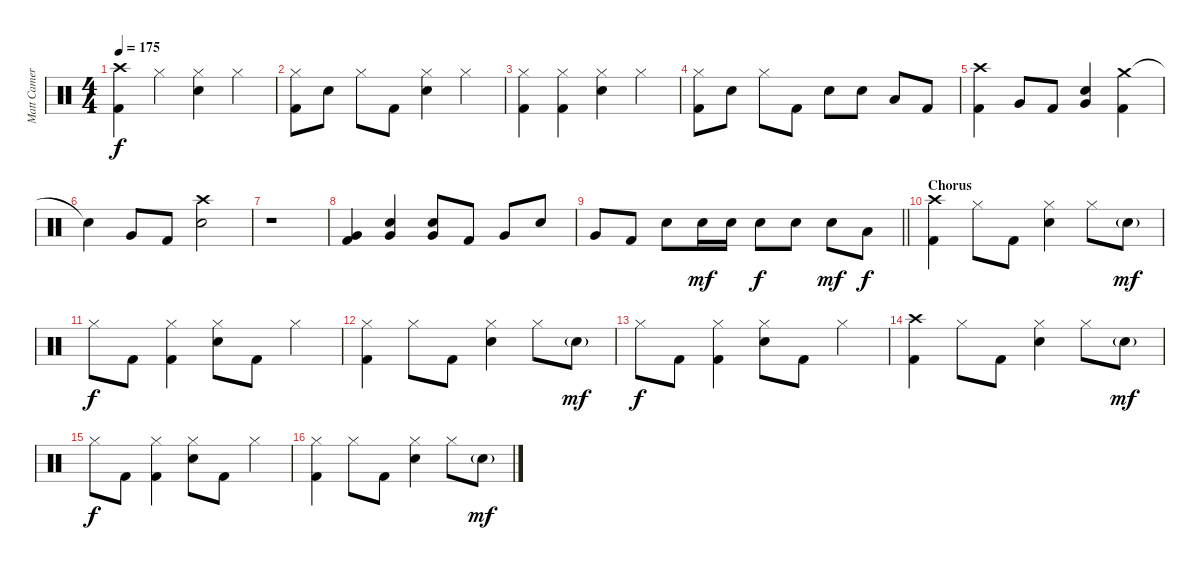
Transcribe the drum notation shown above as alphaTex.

\track ("Matt Cameron Drum" "Matt Camer") {instrument percussion}
\staff {score}
\articulation defaults
\ts (4 4)
\tempo 175
\clef neutral
\ks c
("Crash high (hit)" "Kick (hit) 2").4{dy f} "Hi-Hat (closed)".4 ("Hi-Hat (closed)" "Electric Snare (hit)").4 "Hi-Hat (closed)".4 |
("Hi-Hat (closed)" "Kick (hit) 2").8 "Electric Snare (hit)".8 "Hi-Hat (closed)".8 "Kick (hit) 2".8 ("Hi-Hat (closed)" "Electric Snare (hit)").4 "Hi-Hat (closed)".4 |
("Hi-Hat (closed)" "Kick (hit) 2").4 ("Hi-Hat (closed)" "Kick (hit) 2").4 ("Hi-Hat (closed)" "Electric Snare (hit)").4 "Hi-Hat (closed)".4 |
("Hi-Hat (closed)" "Kick (hit) 2").8 "Electric Snare (hit)".8 "Hi-Hat (closed)".8 "Kick (hit) 2".8 "Electric Snare (hit)".8 "Electric Snare (hit)".8 "Low Tom (hit)".8 "Kick (hit) 2".8 |
("Crash high (hit)" "Kick (hit) 2").4 "Very Low Tom (hit)".8 "Kick (hit) 2".8 ("Very Low Tom (hit)" "Electric Snare (hit)").4 ("Crash medium (hit)" "Kick (hit) 2").4 |
"Snare (hit)"{t}.4 "Very Low Tom (hit)".8 "Kick (hit) 2".8 ("Crash high (hit)" "Electric Snare (hit)").2 |
r.1 |
("Very Low Tom (hit)" "Kick (hit) 2").4 ("Very Low Tom (hit)" "Electric Snare (hit)").4 ("Very Low Tom (hit)" "Electric Snare (hit)").8 "Kick (hit) 2".8 "Very Low Tom (hit)".8 "Electric Snare (hit)".8 |
\barLineRight lightlight "Very Low Tom (hit)".8 "Kick (hit) 2".8 "Electric Snare (hit)".8 "Electric Snare (hit)".16{dy mf} "Electric Snare (hit)".16 "Electric Snare (hit)".8{dy f} "Electric Snare (hit)".8 "Electric Snare (hit)".8{dy mf} "Low Tom (hit)".8{dy f}
|
\section ("" "Chorus")
("Crash high (hit)" "Kick (hit) 2").4 "Hi-Hat (closed)".8 "Kick (hit) 2".8 ("Hi-Hat (closed)" "Electric Snare (hit)").4 "Hi-Hat (closed)".8 "Electric Snare (hit)"{g}.8{dy mf} |
"Hi-Hat (closed)".8{dy f} "Kick (hit) 2".8 ("Hi-Hat (closed)" "Kick (hit) 2").4 ("Hi-Hat (closed)" "Electric Snare (hit)").8 "Kick (hit) 2".8 "Hi-Hat (closed)".4 |
("Hi-Hat (closed)" "Kick (hit) 2").4 "Hi-Hat (closed)".8 "Kick (hit) 2".8 ("Hi-Hat (closed)" "Electric Snare (hit)").4 "Hi-Hat (closed)".8 "Electric Snare (hit)"{g}.8{dy mf} |
"Hi-Hat (closed)".8{dy f} "Kick (hit) 2".8 ("Hi-Hat (closed)" "Kick (hit) 2").4 ("Hi-Hat (closed)" "Electric Snare (hit)").8 "Kick (hit) 2".8 "Hi-Hat (closed)".4 |
("Crash high (hit)" "Kick (hit) 2").4 "Hi-Hat (closed)".8 "Kick (hit) 2".8 ("Hi-Hat (closed)" "Electric Snare (hit)").4 "Hi-Hat (closed)".8 "Electric Snare (hit)"{g}.8{dy mf} |
"Hi-Hat (closed)".8{dy f} "Kick (hit) 2".8 ("Hi-Hat (closed)" "Kick (hit) 2").4 ("Hi-Hat (closed)" "Electric Snare (hit)").8 "Kick (hit) 2".8 "Hi-Hat (closed)".4 |
("Hi-Hat (closed)" "Kick (hit) 2").4 "Hi-Hat (closed)".8 "Kick (hit) 2".8 ("Hi-Hat (closed)" "Electric Snare (hit)").4 "Hi-Hat (closed)".8 "Electric Snare (hit)"{g}.8{dy mf}
